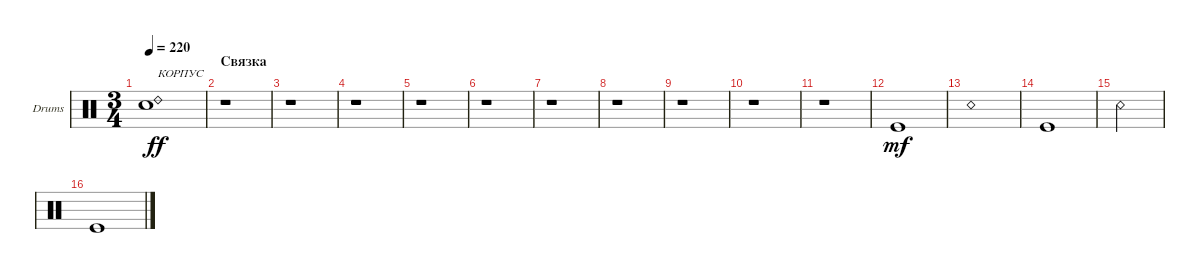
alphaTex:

\defaultSystemsLayout 4
\bracketExtendMode groupsimilarinstruments
\firstSystemTrackNameOrientation horizontal
\otherSystemsTrackNameOrientation horizontal
\track ("Drumkit" "Drums") {instrument percussion}
\staff {score}
\articulation defaults
\ts (3 4)
\tempo 220
\clef neutral
\ks c
("Snare (hit) 2" "Ride (bell) 2").1{txt "КОРПУС " dy ff} |
\section ("" "Связка")
r.1 |
r.1 |
r.1 |
r.1 |
r.1 |
r.1 |
r.1 |
r.1 |
r.1 |
r.1 |
"Kick (hit)".1{dy mf} |
"Snare (rim shot)".1 |
"Kick (hit)".1 |
"Snare (rim shot)".2 |
"Kick (hit)".1
